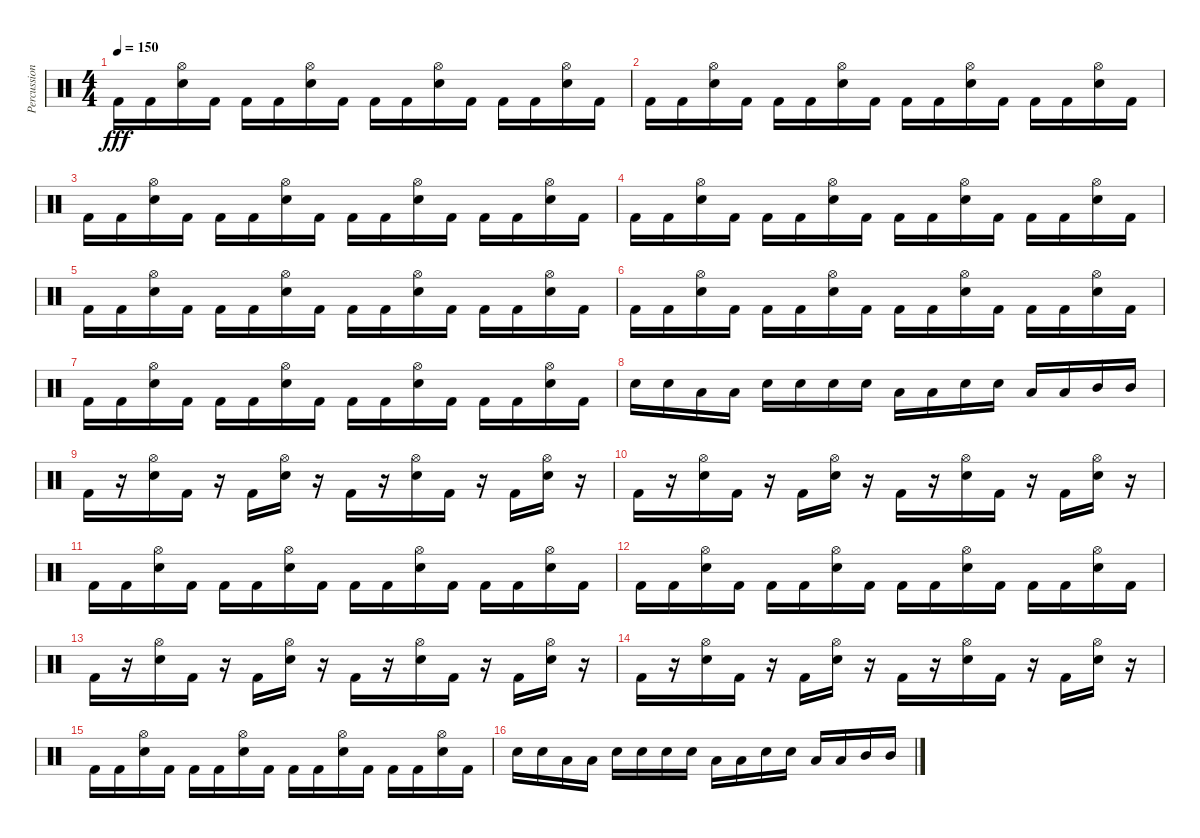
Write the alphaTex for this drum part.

\track ("Percussion" "Percussion") {instrument percussion}
\staff {score}
\articulation defaults
\ts (4 4)
\tempo 150
\clef neutral
\ks c "Kick (hit) 2".16{dy fff} "Kick (hit) 2".16
("Snare (hit) 2" "Hi-Hat (open)").16 "Kick (hit) 2".16 "Kick (hit) 2".16 "Kick (hit) 2".16 ("Snare (hit) 2" "Hi-Hat (open)").16 "Kick (hit) 2".16 "Kick (hit) 2".16 "Kick (hit) 2".16 ("Snare (hit) 2" "Hi-Hat (open)").16 "Kick (hit) 2".16 "Kick (hit) 2".16 "Kick (hit) 2".16 ("Snare (hit) 2" "Hi-Hat (open)").16 "Kick (hit) 2".16 |
"Kick (hit) 2".16 "Kick (hit) 2".16 ("Snare (hit) 2" "Hi-Hat (open)").16 "Kick (hit) 2".16 "Kick (hit) 2".16 "Kick (hit) 2".16 ("Snare (hit) 2" "Hi-Hat (open)").16 "Kick (hit) 2".16 "Kick (hit) 2".16 "Kick (hit) 2".16 ("Snare (hit) 2" "Hi-Hat (open)").16 "Kick (hit) 2".16 "Kick (hit) 2".16 "Kick (hit) 2".16 ("Snare (hit) 2" "Hi-Hat (open)").16 "Kick (hit) 2".16 |
"Kick (hit) 2".16 "Kick (hit) 2".16 ("Snare (hit) 2" "Hi-Hat (open)").16 "Kick (hit) 2".16 "Kick (hit) 2".16 "Kick (hit) 2".16 ("Snare (hit) 2" "Hi-Hat (open)").16 "Kick (hit) 2".16 "Kick (hit) 2".16 "Kick (hit) 2".16 ("Snare (hit) 2" "Hi-Hat (open)").16 "Kick (hit) 2".16 "Kick (hit) 2".16 "Kick (hit) 2".16 ("Snare (hit) 2" "Hi-Hat (open)").16 "Kick (hit) 2".16 |
"Kick (hit) 2".16 "Kick (hit) 2".16 ("Snare (hit) 2" "Hi-Hat (open)").16 "Kick (hit) 2".16 "Kick (hit) 2".16 "Kick (hit) 2".16 ("Snare (hit) 2" "Hi-Hat (open)").16 "Kick (hit) 2".16 "Kick (hit) 2".16 "Kick (hit) 2".16 ("Snare (hit) 2" "Hi-Hat (open)").16 "Kick (hit) 2".16 "Kick (hit) 2".16 "Kick (hit) 2".16 ("Snare (hit) 2" "Hi-Hat (open)").16 "Kick (hit) 2".16 |
"Kick (hit) 2".16 "Kick (hit) 2".16 ("Snare (hit) 2" "Hi-Hat (open)").16 "Kick (hit) 2".16 "Kick (hit) 2".16 "Kick (hit) 2".16 ("Snare (hit) 2" "Hi-Hat (open)").16 "Kick (hit) 2".16 "Kick (hit) 2".16 "Kick (hit) 2".16 ("Snare (hit) 2" "Hi-Hat (open)").16 "Kick (hit) 2".16 "Kick (hit) 2".16 "Kick (hit) 2".16 ("Snare (hit) 2" "Hi-Hat (open)").16 "Kick (hit) 2".16 |
"Kick (hit) 2".16 "Kick (hit) 2".16 ("Snare (hit) 2" "Hi-Hat (open)").16 "Kick (hit) 2".16 "Kick (hit) 2".16 "Kick (hit) 2".16 ("Snare (hit) 2" "Hi-Hat (open)").16 "Kick (hit) 2".16 "Kick (hit) 2".16 "Kick (hit) 2".16 ("Snare (hit) 2" "Hi-Hat (open)").16 "Kick (hit) 2".16 "Kick (hit) 2".16 "Kick (hit) 2".16 ("Snare (hit) 2" "Hi-Hat (open)").16 "Kick (hit) 2".16 |
"Kick (hit) 2".16 "Kick (hit) 2".16 ("Snare (hit) 2" "Hi-Hat (open)").16 "Kick (hit) 2".16 "Kick (hit) 2".16 "Kick (hit) 2".16 ("Snare (hit) 2" "Hi-Hat (open)").16 "Kick (hit) 2".16 "Kick (hit) 2".16 "Kick (hit) 2".16 ("Snare (hit) 2" "Hi-Hat (open)").16 "Kick (hit) 2".16 "Kick (hit) 2".16 "Kick (hit) 2".16 ("Snare (hit) 2" "Hi-Hat (open)").16 "Kick (hit) 2".16 |
"Snare (hit) 2".16 "Snare (hit) 2".16 "Low Tom (hit)".16 "Low Tom (hit)".16 "Snare (hit) 2".16 "Snare (hit) 2".16 "Snare (hit) 2".16 "Snare (hit) 2".16 "Low Tom (hit)".16 "Low Tom (hit)".16 "Snare (hit) 2".16 "Snare (hit) 2".16 "Low Tom (hit)".16 "Low Tom (hit)".16 "Mid Tom (hit)".16 "Mid Tom (hit)".16 |
"Kick (hit) 2".16 r.16 ("Snare (hit) 2" "Hi-Hat (open)").16 "Kick (hit) 2".16 r.16 "Kick (hit) 2".16 ("Snare (hit) 2" "Hi-Hat (open)").16 r.16 "Kick (hit) 2".16 r.16 ("Snare (hit) 2" "Hi-Hat (open)").16 "Kick (hit) 2".16 r.16 "Kick (hit) 2".16 ("Snare (hit) 2" "Hi-Hat (open)").16 r.16 |
"Kick (hit) 2".16 r.16 ("Snare (hit) 2" "Hi-Hat (open)").16 "Kick (hit) 2".16 r.16 "Kick (hit) 2".16 ("Snare (hit) 2" "Hi-Hat (open)").16 r.16 "Kick (hit) 2".16 r.16 ("Snare (hit) 2" "Hi-Hat (open)").16 "Kick (hit) 2".16 r.16 "Kick (hit) 2".16 ("Snare (hit) 2" "Hi-Hat (open)").16 r.16 |
"Kick (hit) 2".16 "Kick (hit) 2".16 ("Snare (hit) 2" "Hi-Hat (open)").16 "Kick (hit) 2".16 "Kick (hit) 2".16 "Kick (hit) 2".16 ("Snare (hit) 2" "Hi-Hat (open)").16 "Kick (hit) 2".16 "Kick (hit) 2".16 "Kick (hit) 2".16 ("Snare (hit) 2" "Hi-Hat (open)").16 "Kick (hit) 2".16 "Kick (hit) 2".16 "Kick (hit) 2".16 ("Snare (hit) 2" "Hi-Hat (open)").16 "Kick (hit) 2".16 |
"Kick (hit) 2".16 "Kick (hit) 2".16 ("Snare (hit) 2" "Hi-Hat (open)").16 "Kick (hit) 2".16 "Kick (hit) 2".16 "Kick (hit) 2".16 ("Snare (hit) 2" "Hi-Hat (open)").16 "Kick (hit) 2".16 "Kick (hit) 2".16 "Kick (hit) 2".16 ("Snare (hit) 2" "Hi-Hat (open)").16 "Kick (hit) 2".16 "Kick (hit) 2".16 "Kick (hit) 2".16 ("Snare (hit) 2" "Hi-Hat (open)").16 "Kick (hit) 2".16 |
"Kick (hit) 2".16 r.16 ("Snare (hit) 2" "Hi-Hat (open)").16 "Kick (hit) 2".16 r.16 "Kick (hit) 2".16 ("Snare (hit) 2" "Hi-Hat (open)").16 r.16 "Kick (hit) 2".16 r.16 ("Snare (hit) 2" "Hi-Hat (open)").16 "Kick (hit) 2".16 r.16 "Kick (hit) 2".16 ("Snare (hit) 2" "Hi-Hat (open)").16 r.16 |
"Kick (hit) 2".16 r.16 ("Snare (hit) 2" "Hi-Hat (open)").16 "Kick (hit) 2".16 r.16 "Kick (hit) 2".16 ("Snare (hit) 2" "Hi-Hat (open)").16 r.16 "Kick (hit) 2".16 r.16 ("Snare (hit) 2" "Hi-Hat (open)").16 "Kick (hit) 2".16 r.16 "Kick (hit) 2".16 ("Snare (hit) 2" "Hi-Hat (open)").16 r.16 |
"Kick (hit) 2".16 "Kick (hit) 2".16 ("Snare (hit) 2" "Hi-Hat (open)").16 "Kick (hit) 2".16 "Kick (hit) 2".16 "Kick (hit) 2".16 ("Snare (hit) 2" "Hi-Hat (open)").16 "Kick (hit) 2".16 "Kick (hit) 2".16 "Kick (hit) 2".16 ("Snare (hit) 2" "Hi-Hat (open)").16 "Kick (hit) 2".16 "Kick (hit) 2".16 "Kick (hit) 2".16 ("Snare (hit) 2" "Hi-Hat (open)").16 "Kick (hit) 2".16 |
"Snare (hit) 2".16 "Snare (hit) 2".16 "Low Tom (hit)".16 "Low Tom (hit)".16 "Snare (hit) 2".16 "Snare (hit) 2".16 "Snare (hit) 2".16 "Snare (hit) 2".16 "Low Tom (hit)".16 "Low Tom (hit)".16 "Snare (hit) 2".16 "Snare (hit) 2".16 "Low Tom (hit)".16 "Low Tom (hit)".16 "Mid Tom (hit)".16 "Mid Tom (hit)".16
